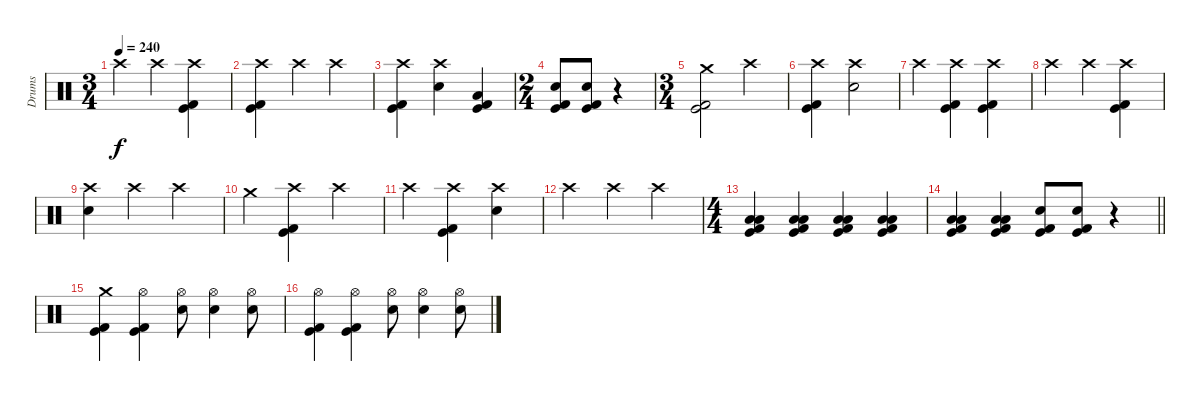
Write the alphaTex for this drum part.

\track ("Drums" "Drums") {instrument percussion}
\staff {score}
\articulation defaults
\ts (3 4)
\tempo 240
\clef neutral
\ks c "Crash high (hit)".4{dy f} "Crash high (hit)".4
("Crash high (hit)" "Kick (hit)" "Kick (hit) 2").4 |
("Crash high (hit)" "Kick (hit)" "Kick (hit) 2").4 "Crash high (hit)".4 "Crash high (hit)".4 |
("Crash high (hit)" "Kick (hit)" "Kick (hit) 2").4 ("Crash high (hit)" "Electric Snare (hit)").4 ("Low Tom (hit)" "Kick (hit)" "Kick (hit) 2").4 |
\ts (2 4)
("Electric Snare (hit)" "Kick (hit)" "Kick (hit) 2").8 ("Electric Snare (hit)" "Kick (hit)" "Kick (hit) 2").8 r.4 |
\ts (3 4)
("Crash medium (hit)" "Kick (hit)" "Kick (hit) 2").2 "Crash high (hit)".4 |
("Crash high (hit)" "Kick (hit)" "Kick (hit) 2").4 ("Crash high (hit)" "Electric Snare (hit)").2 |
"Crash high (hit)".4 ("Crash high (hit)" "Kick (hit)" "Kick (hit) 2").4 ("Crash high (hit)" "Kick (hit)" "Kick (hit) 2").4 |
"Crash high (hit)".4 "Crash high (hit)".4 ("Crash high (hit)" "Kick (hit)" "Kick (hit) 2").4 |
("Crash high (hit)" "Electric Snare (hit)").4 "Crash high (hit)".4 "Crash high (hit)".4 |
"Crash medium (hit)".4 ("Crash high (hit)" "Kick (hit)" "Kick (hit) 2").4 "Crash high (hit)".4 |
"Crash high (hit)".4 ("Crash high (hit)" "Kick (hit)" "Kick (hit) 2").4 ("Crash high (hit)" "Electric Snare (hit)").4 |
"Crash high (hit)".4 "Crash high (hit)".4 "Crash high (hit)".4 |
\ts (4 4)
("Low Floor Tom (hit)" "Low Tom (hit)" "Kick (hit)" "Kick (hit) 2").4 ("Low Floor Tom (hit)" "Low Tom (hit)" "Kick (hit)" "Kick (hit) 2").4 ("Low Floor Tom (hit)" "Low Tom (hit)" "Kick (hit)" "Kick (hit) 2").4 ("Low Floor Tom (hit)" "Low Tom (hit)" "Kick (hit)" "Kick (hit) 2").4 |
\barLineRight lightlight
("Low Floor Tom (hit)" "Low Tom (hit)" "Kick (hit)" "Kick (hit) 2").4 ("Low Floor Tom (hit)" "Low Tom (hit)" "Kick (hit)" "Kick (hit) 2").4 ("Electric Snare (hit)" "Kick (hit)" "Kick (hit) 2").8 ("Electric Snare (hit)" "Kick (hit)" "Kick (hit) 2").8 r.4 |
\section ("" "")
("Crash medium (hit)" "Kick (hit)" "Kick (hit) 2").4 ("Hi-Hat (open)" "Kick (hit)" "Kick (hit) 2").4 ("Hi-Hat (open)" "Electric Snare (hit)").8 ("Hi-Hat (open)" "Electric Snare (hit)").4 ("Hi-Hat (open)" "Electric Snare (hit)").8 |
("Hi-Hat (open)" "Kick (hit)" "Kick (hit) 2").4 ("Hi-Hat (open)" "Kick (hit)" "Kick (hit) 2").4 ("Hi-Hat (open)" "Electric Snare (hit)").8 ("Hi-Hat (open)" "Electric Snare (hit)").4 ("Hi-Hat (open)" "Electric Snare (hit)").8
